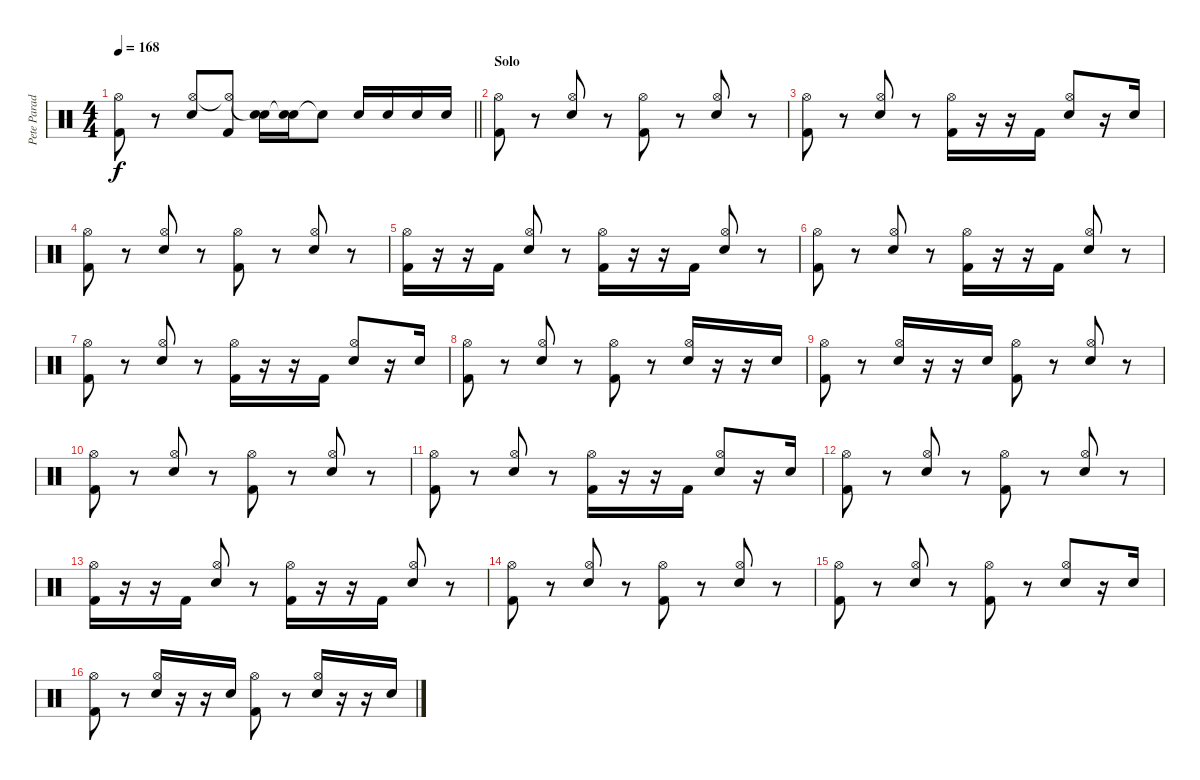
\track ("Pete Parada" "Pete Parad") {instrument percussion}
\staff {score}
\articulation defaults
\ts (4 4)
\tempo 168
\clef neutral
\barLineRight lightlight
\ks c
("Kick (hit) 2" "Hi-Hat (open)").8{dy f} r.8 ("Electric Snare (hit)" "Hi-Hat (open)").8{beam Up} ("Kick (hit) 2" "Hi-Hat (open)"{t}).8 ("Electric Snare (hit)" "Snare (hit)"{t}).16 ("Electric Snare (hit)" "Snare (hit)"{t}).16 "Snare (hit)"{t}.8 "Electric Snare (hit)".16{beam Up} "Electric Snare (hit)".16{beam Up} "Electric Snare (hit)".16{beam Up} "Electric Snare (hit)".16{beam Up} |
\section ("" "Solo")
("Kick (hit) 2" "Hi-Hat (open)").8 r.8 ("Electric Snare (hit)" "Hi-Hat (open)").8{beam Up} r.8 ("Kick (hit) 2" "Hi-Hat (open)").8 r.8 ("Electric Snare (hit)" "Hi-Hat (open)").8{beam Up} r.8 |
("Kick (hit) 2" "Hi-Hat (open)").8 r.8 ("Electric Snare (hit)" "Hi-Hat (open)").8{beam Up} r.8 ("Kick (hit) 2" "Hi-Hat (open)").16 r.16 r.16 "Kick (hit) 2".16 ("Electric Snare (hit)" "Hi-Hat (open)").8{beam Up} r.16 "Electric Snare (hit)".16 |
("Kick (hit) 2" "Hi-Hat (open)").8 r.8 ("Electric Snare (hit)" "Hi-Hat (open)").8{beam Up} r.8 ("Kick (hit) 2" "Hi-Hat (open)").8 r.8 ("Electric Snare (hit)" "Hi-Hat (open)").8{beam Up} r.8 |
("Kick (hit) 2" "Hi-Hat (open)").16 r.16 r.16 "Kick (hit) 2".16 ("Electric Snare (hit)" "Hi-Hat (open)").8{beam Up} r.8 ("Kick (hit) 2" "Hi-Hat (open)").16 r.16 r.16 "Kick (hit) 2".16 ("Electric Snare (hit)" "Hi-Hat (open)").8{beam Up} r.8 |
("Kick (hit) 2" "Hi-Hat (open)").8 r.8 ("Electric Snare (hit)" "Hi-Hat (open)").8{beam Up} r.8 ("Kick (hit) 2" "Hi-Hat (open)").16 r.16 r.16 "Kick (hit) 2".16 ("Electric Snare (hit)" "Hi-Hat (open)").8{beam Up} r.8 |
("Kick (hit) 2" "Hi-Hat (open)").8 r.8 ("Electric Snare (hit)" "Hi-Hat (open)").8{beam Up} r.8 ("Kick (hit) 2" "Hi-Hat (open)").16 r.16 r.16 "Kick (hit) 2".16 ("Electric Snare (hit)" "Hi-Hat (open)").8{beam Up} r.16 "Electric Snare (hit)".16 |
("Kick (hit) 2" "Hi-Hat (open)").8 r.8 ("Electric Snare (hit)" "Hi-Hat (open)").8{beam Up} r.8 ("Kick (hit) 2" "Hi-Hat (open)").8 r.8 ("Electric Snare (hit)" "Hi-Hat (open)").16{beam Up} r.16 r.16 "Electric Snare (hit)".16 |
("Kick (hit) 2" "Hi-Hat (open)").8 r.8 ("Electric Snare (hit)" "Hi-Hat (open)").16{beam Up} r.16 r.16 "Electric Snare (hit)".16 ("Kick (hit) 2" "Hi-Hat (open)").8 r.8 ("Electric Snare (hit)" "Hi-Hat (open)").8{beam Up} r.8 |
("Kick (hit) 2" "Hi-Hat (open)").8 r.8 ("Electric Snare (hit)" "Hi-Hat (open)").8{beam Up} r.8 ("Kick (hit) 2" "Hi-Hat (open)").8 r.8 ("Electric Snare (hit)" "Hi-Hat (open)").8{beam Up} r.8 |
("Kick (hit) 2" "Hi-Hat (open)").8 r.8 ("Electric Snare (hit)" "Hi-Hat (open)").8{beam Up} r.8 ("Kick (hit) 2" "Hi-Hat (open)").16 r.16 r.16 "Kick (hit) 2".16 ("Electric Snare (hit)" "Hi-Hat (open)").8{beam Up} r.16 "Electric Snare (hit)".16 |
("Kick (hit) 2" "Hi-Hat (open)").8 r.8 ("Electric Snare (hit)" "Hi-Hat (open)").8{beam Up} r.8 ("Kick (hit) 2" "Hi-Hat (open)").8 r.8 ("Electric Snare (hit)" "Hi-Hat (open)").8{beam Up} r.8 |
("Kick (hit) 2" "Hi-Hat (open)").16 r.16 r.16 "Kick (hit) 2".16 ("Electric Snare (hit)" "Hi-Hat (open)").8{beam Up} r.8 ("Kick (hit) 2" "Hi-Hat (open)").16 r.16 r.16 "Kick (hit) 2".16 ("Electric Snare (hit)" "Hi-Hat (open)").8{beam Up} r.8 |
("Kick (hit) 2" "Hi-Hat (open)").8 r.8 ("Electric Snare (hit)" "Hi-Hat (open)").8{beam Up} r.8 ("Kick (hit) 2" "Hi-Hat (open)").8 r.8 ("Electric Snare (hit)" "Hi-Hat (open)").8{beam Up} r.8 |
("Kick (hit) 2" "Hi-Hat (open)").8 r.8 ("Electric Snare (hit)" "Hi-Hat (open)").8{beam Up} r.8 ("Kick (hit) 2" "Hi-Hat (open)").8 r.8 ("Electric Snare (hit)" "Hi-Hat (open)").8{beam Up} r.16 "Electric Snare (hit)".16 |
("Kick (hit) 2" "Hi-Hat (open)").8 r.8 ("Electric Snare (hit)" "Hi-Hat (open)").16{beam Up} r.16 r.16 "Electric Snare (hit)".16 ("Kick (hit) 2" "Hi-Hat (open)").8 r.8 ("Electric Snare (hit)" "Hi-Hat (open)").16{beam Up} r.16 r.16 "Electric Snare (hit)".16
